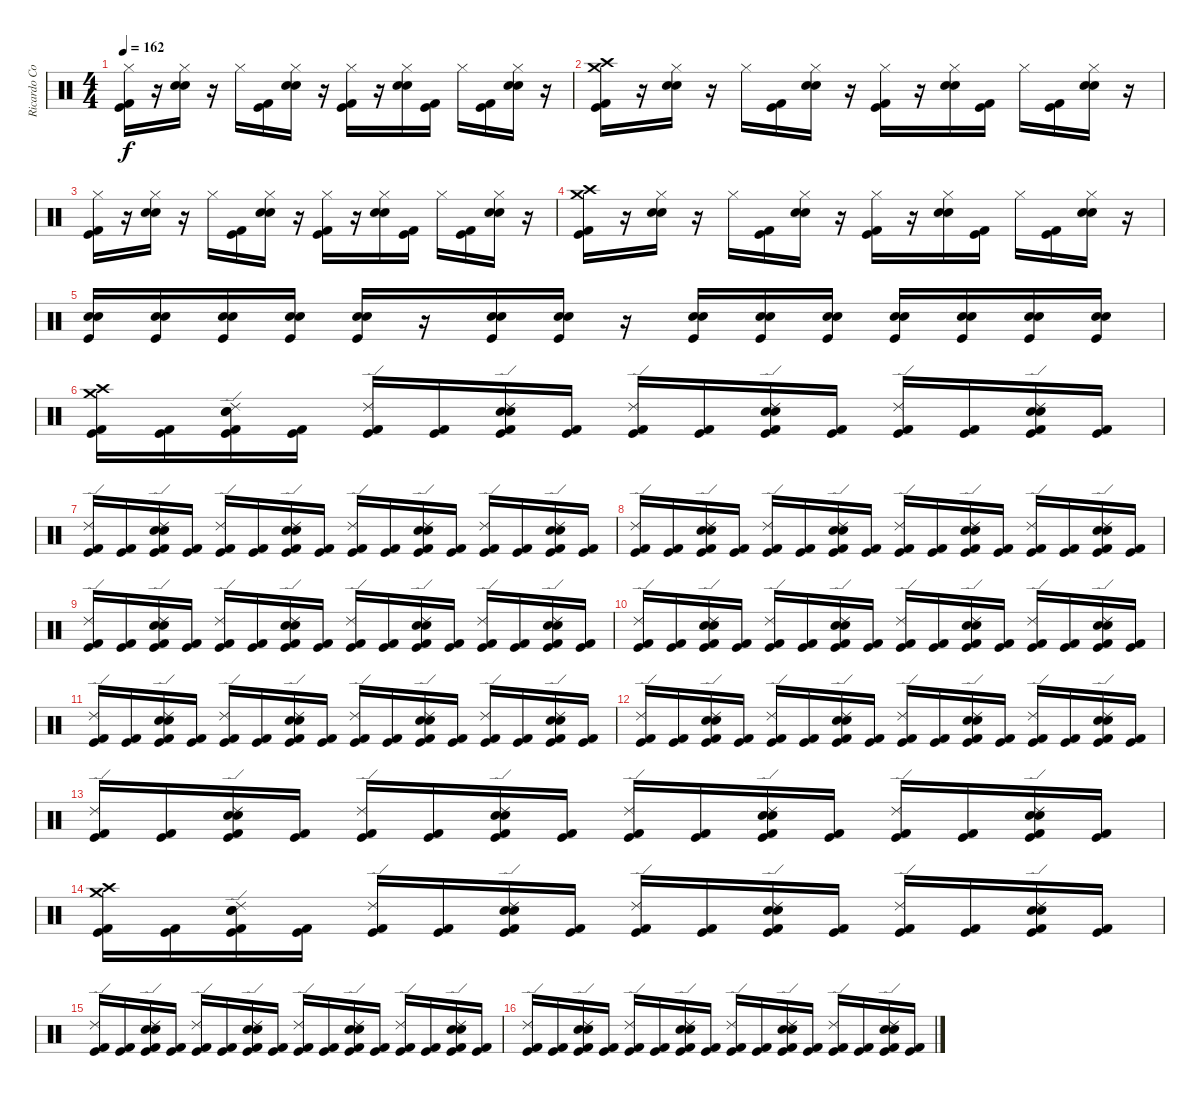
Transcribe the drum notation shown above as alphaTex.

\track ("Ricardo Confessori" "Ricardo Co") {instrument percussion}
\staff {score}
\articulation defaults
\ts (4 4)
\tempo 162
\clef neutral
\ks c
("Hi-Hat (closed)" "Kick (hit) 2" "Kick (hit)").16{dy f} r.16 ("Hi-Hat (closed)" "Electric Snare (hit)" "Snare (hit) 2").16 r.16 "Hi-Hat (closed)".16 ("Kick (hit) 2" "Kick (hit)").16 ("Hi-Hat (closed)" "Electric Snare (hit)" "Snare (hit) 2").16 r.16 ("Hi-Hat (closed)" "Kick (hit) 2" "Kick (hit)").16 r.16 ("Hi-Hat (closed)" "Electric Snare (hit)" "Snare (hit) 2").16 ("Kick (hit) 2" "Kick (hit)").16 "Hi-Hat (closed)".16 ("Kick (hit) 2" "Kick (hit)").16 ("Hi-Hat (closed)" "Electric Snare (hit)" "Snare (hit) 2").16 r.16 |
("Crash high (hit)" "Crash medium (hit)" "Kick (hit) 2" "Kick (hit)").16 r.16 ("Hi-Hat (closed)" "Electric Snare (hit)" "Snare (hit) 2").16 r.16 "Hi-Hat (closed)".16 ("Kick (hit) 2" "Kick (hit)").16 ("Hi-Hat (closed)" "Electric Snare (hit)" "Snare (hit) 2").16 r.16 ("Hi-Hat (closed)" "Kick (hit) 2" "Kick (hit)").16 r.16 ("Hi-Hat (closed)" "Electric Snare (hit)" "Snare (hit) 2").16 ("Kick (hit) 2" "Kick (hit)").16 "Hi-Hat (closed)".16 ("Kick (hit) 2" "Kick (hit)").16 ("Hi-Hat (closed)" "Electric Snare (hit)" "Snare (hit) 2").16 r.16 |
("Hi-Hat (closed)" "Kick (hit) 2" "Kick (hit)").16 r.16 ("Hi-Hat (closed)" "Electric Snare (hit)" "Snare (hit) 2").16 r.16 "Hi-Hat (closed)".16 ("Kick (hit) 2" "Kick (hit)").16 ("Hi-Hat (closed)" "Electric Snare (hit)" "Snare (hit) 2").16 r.16 ("Hi-Hat (closed)" "Kick (hit) 2" "Kick (hit)").16 r.16 ("Hi-Hat (closed)" "Electric Snare (hit)" "Snare (hit) 2").16 ("Kick (hit) 2" "Kick (hit)").16 "Hi-Hat (closed)".16 ("Kick (hit) 2" "Kick (hit)").16 ("Hi-Hat (closed)" "Electric Snare (hit)" "Snare (hit) 2").16 r.16 |
("Crash medium (hit)" "Crash high (hit)" "Kick (hit) 2" "Kick (hit)").16 r.16 ("Hi-Hat (closed)" "Electric Snare (hit)" "Snare (hit) 2").16 r.16 "Hi-Hat (closed)".16 ("Kick (hit) 2" "Kick (hit)").16 ("Hi-Hat (closed)" "Electric Snare (hit)" "Snare (hit) 2").16 r.16 ("Hi-Hat (closed)" "Kick (hit) 2" "Kick (hit)").16 r.16 ("Hi-Hat (closed)" "Electric Snare (hit)" "Snare (hit) 2").16 ("Kick (hit) 2" "Kick (hit)").16 "Hi-Hat (closed)".16 ("Kick (hit) 2" "Kick (hit)").16 ("Hi-Hat (closed)" "Electric Snare (hit)" "Snare (hit) 2").16 r.16 |
("Kick (hit)" "Electric Snare (hit)" "Snare (hit) 2").16 ("Kick (hit)" "Electric Snare (hit)" "Snare (hit) 2").16 ("Kick (hit)" "Electric Snare (hit)" "Snare (hit) 2").16 ("Kick (hit)" "Electric Snare (hit)" "Snare (hit) 2").16 ("Kick (hit)" "Electric Snare (hit)" "Snare (hit) 2").16 r.16 ("Kick (hit)" "Electric Snare (hit)" "Snare (hit) 2").16 ("Kick (hit)" "Electric Snare (hit)" "Snare (hit) 2").16 r.16 ("Kick (hit)" "Electric Snare (hit)" "Snare (hit) 2").16 ("Kick (hit)" "Electric Snare (hit)" "Snare (hit) 2").16 ("Kick (hit)" "Electric Snare (hit)" "Snare (hit) 2").16 ("Kick (hit)" "Electric Snare (hit)" "Snare (hit) 2").16 ("Kick (hit)" "Electric Snare (hit)" "Snare (hit) 2").16 ("Kick (hit)" "Electric Snare (hit)" "Snare (hit) 2").16 ("Kick (hit)" "Electric Snare (hit)" "Snare (hit) 2").16 |
("Crash high (hit)" "Crash medium (hit)" "Kick (hit) 2" "Kick (hit)").16 ("Kick (hit) 2" "Kick (hit)").16 ("Ride (edge) 2" "Electric Snare (hit)" "Snare (hit) 2" "Kick (hit) 2" "Kick (hit)").16 ("Kick (hit) 2" "Kick (hit)").16 ("Ride (edge) 2" "Kick (hit) 2" "Kick (hit)").16 ("Kick (hit)" "Kick (hit) 2").16 ("Ride (edge) 2" "Snare (hit) 2" "Electric Snare (hit)" "Kick (hit) 2" "Kick (hit)").16 ("Kick (hit) 2" "Kick (hit)").16 ("Ride (edge) 2" "Kick (hit) 2" "Kick (hit)").16 ("Kick (hit) 2" "Kick (hit)").16 ("Ride (edge) 2" "Electric Snare (hit)" "Snare (hit) 2" "Kick (hit) 2" "Kick (hit)").16 ("Kick (hit) 2" "Kick (hit)").16 ("Ride (edge) 2" "Kick (hit) 2" "Kick (hit)").16 ("Kick (hit) 2" "Kick (hit)").16 ("Ride (edge) 2" "Electric Snare (hit)" "Snare (hit) 2" "Kick (hit) 2" "Kick (hit)").16 ("Kick (hit) 2" "Kick (hit)").16 |
("Ride (edge) 2" "Kick (hit) 2" "Kick (hit)").16 ("Kick (hit) 2" "Kick (hit)").16 ("Ride (edge) 2" "Electric Snare (hit)" "Snare (hit) 2" "Kick (hit) 2" "Kick (hit)").16 ("Kick (hit) 2" "Kick (hit)").16 ("Ride (edge) 2" "Kick (hit) 2" "Kick (hit)").16 ("Kick (hit) 2" "Kick (hit)").16 ("Ride (edge) 2" "Electric Snare (hit)" "Snare (hit) 2" "Kick (hit) 2" "Kick (hit)").16 ("Kick (hit) 2" "Kick (hit)").16 ("Ride (edge) 2" "Kick (hit) 2" "Kick (hit)").16 ("Kick (hit) 2" "Kick (hit)").16 ("Ride (edge) 2" "Electric Snare (hit)" "Snare (hit) 2" "Kick (hit) 2" "Kick (hit)").16 ("Kick (hit) 2" "Kick (hit)").16 ("Ride (edge) 2" "Kick (hit) 2" "Kick (hit)").16 ("Kick (hit) 2" "Kick (hit)").16 ("Ride (edge) 2" "Electric Snare (hit)" "Snare (hit) 2" "Kick (hit) 2" "Kick (hit)").16 ("Kick (hit) 2" "Kick (hit)").16 |
("Ride (edge) 2" "Kick (hit) 2" "Kick (hit)").16 ("Kick (hit) 2" "Kick (hit)").16 ("Ride (edge) 2" "Electric Snare (hit)" "Snare (hit) 2" "Kick (hit) 2" "Kick (hit)").16 ("Kick (hit) 2" "Kick (hit)").16 ("Ride (edge) 2" "Kick (hit) 2" "Kick (hit)").16 ("Kick (hit) 2" "Kick (hit)").16 ("Ride (edge) 2" "Electric Snare (hit)" "Snare (hit) 2" "Kick (hit) 2" "Kick (hit)").16 ("Kick (hit) 2" "Kick (hit)").16 ("Ride (edge) 2" "Kick (hit) 2" "Kick (hit)").16 ("Kick (hit) 2" "Kick (hit)").16 ("Ride (edge) 2" "Electric Snare (hit)" "Snare (hit) 2" "Kick (hit) 2" "Kick (hit)").16 ("Kick (hit) 2" "Kick (hit)").16 ("Ride (edge) 2" "Kick (hit) 2" "Kick (hit)").16 ("Kick (hit) 2" "Kick (hit)").16 ("Ride (edge) 2" "Electric Snare (hit)" "Snare (hit) 2" "Kick (hit) 2" "Kick (hit)").16 ("Kick (hit) 2" "Kick (hit)").16 |
("Ride (edge) 2" "Kick (hit) 2" "Kick (hit)").16 ("Kick (hit) 2" "Kick (hit)").16 ("Ride (edge) 2" "Electric Snare (hit)" "Snare (hit) 2" "Kick (hit) 2" "Kick (hit)").16 ("Kick (hit) 2" "Kick (hit)").16 ("Ride (edge) 2" "Kick (hit) 2" "Kick (hit)").16 ("Kick (hit) 2" "Kick (hit)").16 ("Ride (edge) 2" "Electric Snare (hit)" "Snare (hit) 2" "Kick (hit) 2" "Kick (hit)").16 ("Kick (hit) 2" "Kick (hit)").16 ("Ride (edge) 2" "Kick (hit) 2" "Kick (hit)").16 ("Kick (hit) 2" "Kick (hit)").16 ("Ride (edge) 2" "Electric Snare (hit)" "Snare (hit) 2" "Kick (hit) 2" "Kick (hit)").16 ("Kick (hit) 2" "Kick (hit)").16 ("Ride (edge) 2" "Kick (hit) 2" "Kick (hit)").16 ("Kick (hit) 2" "Kick (hit)").16 ("Ride (edge) 2" "Electric Snare (hit)" "Snare (hit) 2" "Kick (hit) 2" "Kick (hit)").16 ("Kick (hit) 2" "Kick (hit)").16 |
("Ride (edge) 2" "Kick (hit) 2" "Kick (hit)").16 ("Kick (hit) 2" "Kick (hit)").16 ("Ride (edge) 2" "Electric Snare (hit)" "Snare (hit) 2" "Kick (hit) 2" "Kick (hit)").16 ("Kick (hit) 2" "Kick (hit)").16 ("Ride (edge) 2" "Kick (hit) 2" "Kick (hit)").16 ("Kick (hit) 2" "Kick (hit)").16 ("Ride (edge) 2" "Electric Snare (hit)" "Snare (hit) 2" "Kick (hit) 2" "Kick (hit)").16 ("Kick (hit) 2" "Kick (hit)").16 ("Ride (edge) 2" "Kick (hit) 2" "Kick (hit)").16 ("Kick (hit) 2" "Kick (hit)").16 ("Ride (edge) 2" "Electric Snare (hit)" "Snare (hit) 2" "Kick (hit) 2" "Kick (hit)").16 ("Kick (hit) 2" "Kick (hit)").16 ("Ride (edge) 2" "Kick (hit) 2" "Kick (hit)").16 ("Kick (hit) 2" "Kick (hit)").16 ("Ride (edge) 2" "Electric Snare (hit)" "Snare (hit) 2" "Kick (hit) 2" "Kick (hit)").16 ("Kick (hit) 2" "Kick (hit)").16 |
("Ride (edge) 2" "Kick (hit) 2" "Kick (hit)").16 ("Kick (hit) 2" "Kick (hit)").16 ("Ride (edge) 2" "Electric Snare (hit)" "Snare (hit) 2" "Kick (hit) 2" "Kick (hit)").16 ("Kick (hit) 2" "Kick (hit)").16 ("Ride (edge) 2" "Kick (hit) 2" "Kick (hit)").16 ("Kick (hit) 2" "Kick (hit)").16 ("Ride (edge) 2" "Electric Snare (hit)" "Snare (hit) 2" "Kick (hit) 2" "Kick (hit)").16 ("Kick (hit) 2" "Kick (hit)").16 ("Ride (edge) 2" "Kick (hit) 2" "Kick (hit)").16 ("Kick (hit) 2" "Kick (hit)").16 ("Ride (edge) 2" "Electric Snare (hit)" "Snare (hit) 2" "Kick (hit) 2" "Kick (hit)").16 ("Kick (hit) 2" "Kick (hit)").16 ("Ride (edge) 2" "Kick (hit) 2" "Kick (hit)").16 ("Kick (hit) 2" "Kick (hit)").16 ("Ride (edge) 2" "Electric Snare (hit)" "Snare (hit) 2" "Kick (hit) 2" "Kick (hit)").16 ("Kick (hit) 2" "Kick (hit)").16 |
("Ride (edge) 2" "Kick (hit) 2" "Kick (hit)").16 ("Kick (hit) 2" "Kick (hit)").16 ("Ride (edge) 2" "Electric Snare (hit)" "Snare (hit) 2" "Kick (hit) 2" "Kick (hit)").16 ("Kick (hit) 2" "Kick (hit)").16 ("Ride (edge) 2" "Kick (hit) 2" "Kick (hit)").16 ("Kick (hit) 2" "Kick (hit)").16 ("Ride (edge) 2" "Electric Snare (hit)" "Snare (hit) 2" "Kick (hit) 2" "Kick (hit)").16 ("Kick (hit) 2" "Kick (hit)").16 ("Ride (edge) 2" "Kick (hit) 2" "Kick (hit)").16 ("Kick (hit) 2" "Kick (hit)").16 ("Ride (edge) 2" "Electric Snare (hit)" "Snare (hit) 2" "Kick (hit) 2" "Kick (hit)").16 ("Kick (hit) 2" "Kick (hit)").16 ("Ride (edge) 2" "Kick (hit) 2" "Kick (hit)").16 ("Kick (hit) 2" "Kick (hit)").16 ("Ride (edge) 2" "Electric Snare (hit)" "Snare (hit) 2" "Kick (hit) 2" "Kick (hit)").16 ("Kick (hit) 2" "Kick (hit)").16 |
("Ride (edge) 2" "Kick (hit) 2" "Kick (hit)").16 ("Kick (hit) 2" "Kick (hit)").16 ("Ride (edge) 2" "Electric Snare (hit)" "Snare (hit) 2" "Kick (hit) 2" "Kick (hit)").16 ("Kick (hit) 2" "Kick (hit)").16 ("Ride (edge) 2" "Kick (hit) 2" "Kick (hit)").16 ("Kick (hit) 2" "Kick (hit)").16 ("Ride (edge) 2" "Electric Snare (hit)" "Snare (hit) 2" "Kick (hit) 2" "Kick (hit)").16 ("Kick (hit) 2" "Kick (hit)").16 ("Ride (edge) 2" "Kick (hit) 2" "Kick (hit)").16 ("Kick (hit) 2" "Kick (hit)").16 ("Ride (edge) 2" "Electric Snare (hit)" "Snare (hit) 2" "Kick (hit) 2" "Kick (hit)").16 ("Kick (hit) 2" "Kick (hit)").16 ("Ride (edge) 2" "Kick (hit) 2" "Kick (hit)").16 ("Kick (hit) 2" "Kick (hit)").16 ("Ride (edge) 2" "Electric Snare (hit)" "Snare (hit) 2" "Kick (hit) 2" "Kick (hit)").16 ("Kick (hit) 2" "Kick (hit)").16 |
("Crash high (hit)" "Crash medium (hit)" "Kick (hit) 2" "Kick (hit)").16 ("Kick (hit) 2" "Kick (hit)").16 ("Ride (edge) 2" "Electric Snare (hit)" "Snare (hit) 2" "Kick (hit) 2" "Kick (hit)").16 ("Kick (hit) 2" "Kick (hit)").16 ("Ride (edge) 2" "Kick (hit) 2" "Kick (hit)").16 ("Kick (hit) 2" "Kick (hit)").16 ("Ride (edge) 2" "Electric Snare (hit)" "Snare (hit) 2" "Kick (hit) 2" "Kick (hit)").16 ("Kick (hit) 2" "Kick (hit)").16 ("Ride (edge) 2" "Kick (hit) 2" "Kick (hit)").16 ("Kick (hit) 2" "Kick (hit)").16 ("Ride (edge) 2" "Electric Snare (hit)" "Snare (hit) 2" "Kick (hit) 2" "Kick (hit)").16 ("Kick (hit) 2" "Kick (hit)").16 ("Ride (edge) 2" "Kick (hit) 2" "Kick (hit)").16 ("Kick (hit) 2" "Kick (hit)").16 ("Ride (edge) 2" "Electric Snare (hit)" "Snare (hit) 2" "Kick (hit) 2" "Kick (hit)").16 ("Kick (hit) 2" "Kick (hit)").16 |
("Ride (edge) 2" "Kick (hit) 2" "Kick (hit)").16 ("Kick (hit) 2" "Kick (hit)").16 ("Ride (edge) 2" "Electric Snare (hit)" "Snare (hit) 2" "Kick (hit) 2" "Kick (hit)").16 ("Kick (hit) 2" "Kick (hit)").16 ("Ride (edge) 2" "Kick (hit) 2" "Kick (hit)").16 ("Kick (hit) 2" "Kick (hit)").16 ("Ride (edge) 2" "Electric Snare (hit)" "Snare (hit) 2" "Kick (hit) 2" "Kick (hit)").16 ("Kick (hit) 2" "Kick (hit)").16 ("Ride (edge) 2" "Kick (hit) 2" "Kick (hit)").16 ("Kick (hit) 2" "Kick (hit)").16 ("Ride (edge) 2" "Electric Snare (hit)" "Snare (hit) 2" "Kick (hit) 2" "Kick (hit)").16 ("Kick (hit) 2" "Kick (hit)").16 ("Ride (edge) 2" "Kick (hit) 2" "Kick (hit)").16 ("Kick (hit) 2" "Kick (hit)").16 ("Ride (edge) 2" "Electric Snare (hit)" "Snare (hit) 2" "Kick (hit) 2" "Kick (hit)").16 ("Kick (hit) 2" "Kick (hit)").16 |
("Ride (edge) 2" "Kick (hit) 2" "Kick (hit)").16 ("Kick (hit) 2" "Kick (hit)").16 ("Ride (edge) 2" "Electric Snare (hit)" "Snare (hit) 2" "Kick (hit) 2" "Kick (hit)").16 ("Kick (hit) 2" "Kick (hit)").16 ("Ride (edge) 2" "Kick (hit) 2" "Kick (hit)").16 ("Kick (hit) 2" "Kick (hit)").16 ("Ride (edge) 2" "Electric Snare (hit)" "Snare (hit) 2" "Kick (hit) 2" "Kick (hit)").16 ("Kick (hit) 2" "Kick (hit)").16 ("Ride (edge) 2" "Kick (hit) 2" "Kick (hit)").16 ("Kick (hit) 2" "Kick (hit)").16 ("Ride (edge) 2" "Electric Snare (hit)" "Snare (hit) 2" "Kick (hit) 2" "Kick (hit)").16 ("Kick (hit) 2" "Kick (hit)").16 ("Ride (edge) 2" "Kick (hit) 2" "Kick (hit)").16 ("Kick (hit) 2" "Kick (hit)").16 ("Ride (edge) 2" "Electric Snare (hit)" "Snare (hit) 2" "Kick (hit) 2" "Kick (hit)").16 ("Kick (hit) 2" "Kick (hit)").16
